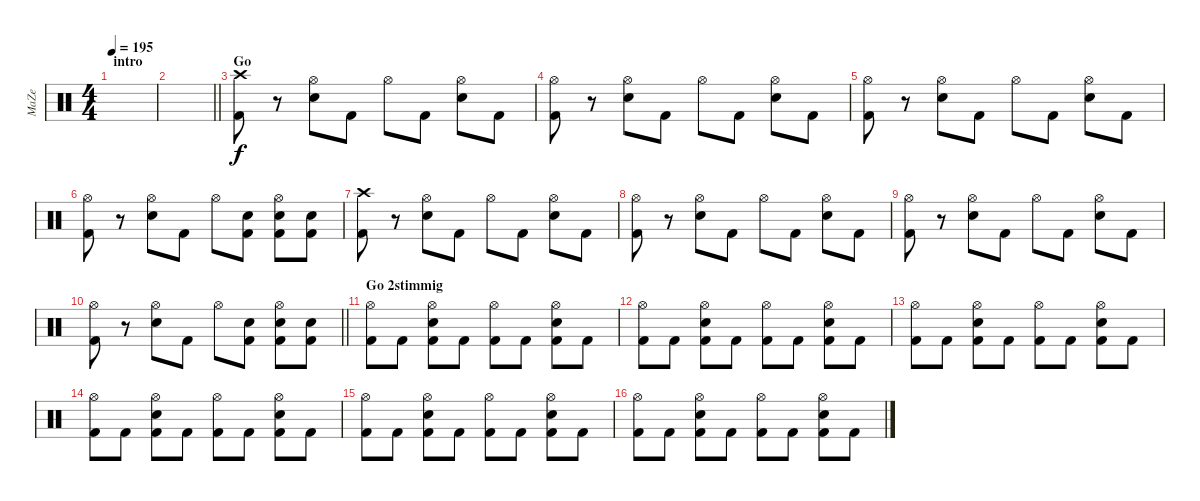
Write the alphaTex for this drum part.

\track ("MaZe" "MaZe") {instrument percussion}
\staff {score}
\articulation defaults
\ts (4 4)
\section ("" "intro")
\tempo 195
\clef neutral
\ks c
|
\barLineRight lightlight
|
\section ("" "Go")
("Crash high (hit)" "Kick (hit) 2").8 r.8 ("Snare (hit) 2" "Hi-Hat (open)").8 "Kick (hit) 2".8 "Hi-Hat (open)".8 "Kick (hit) 2".8 ("Snare (hit) 2" "Hi-Hat (open)").8 "Kick (hit) 2".8 |
("Hi-Hat (open)" "Kick (hit) 2").8 r.8 ("Snare (hit) 2" "Hi-Hat (open)").8 "Kick (hit) 2".8 "Hi-Hat (open)".8 "Kick (hit) 2".8 ("Snare (hit) 2" "Hi-Hat (open)").8 "Kick (hit) 2".8 |
("Hi-Hat (open)" "Kick (hit) 2").8 r.8 ("Snare (hit) 2" "Hi-Hat (open)").8 "Kick (hit) 2".8 "Hi-Hat (open)".8 "Kick (hit) 2".8 ("Snare (hit) 2" "Hi-Hat (open)").8 "Kick (hit) 2".8 |
("Hi-Hat (open)" "Kick (hit) 2").8 r.8 ("Snare (hit) 2" "Hi-Hat (open)").8 "Kick (hit) 2".8 "Hi-Hat (open)".8 ("Snare (hit) 2" "Kick (hit) 2").8 ("Snare (hit) 2" "Hi-Hat (open)" "Kick (hit) 2").8 ("Snare (hit) 2" "Kick (hit) 2").8 |
("Crash high (hit)" "Kick (hit) 2").8 r.8 ("Snare (hit) 2" "Hi-Hat (open)").8 "Kick (hit) 2".8 "Hi-Hat (open)".8 "Kick (hit) 2".8 ("Snare (hit) 2" "Hi-Hat (open)").8 "Kick (hit) 2".8 |
("Hi-Hat (open)" "Kick (hit) 2").8 r.8 ("Snare (hit) 2" "Hi-Hat (open)").8 "Kick (hit) 2".8 "Hi-Hat (open)".8 "Kick (hit) 2".8 ("Snare (hit) 2" "Hi-Hat (open)").8 "Kick (hit) 2".8 |
("Hi-Hat (open)" "Kick (hit) 2").8 r.8 ("Snare (hit) 2" "Hi-Hat (open)").8 "Kick (hit) 2".8 "Hi-Hat (open)".8 "Kick (hit) 2".8 ("Snare (hit) 2" "Hi-Hat (open)").8 "Kick (hit) 2".8 |
\barLineRight lightlight
("Hi-Hat (open)" "Kick (hit) 2").8 r.8 ("Snare (hit) 2" "Hi-Hat (open)").8 "Kick (hit) 2".8 "Hi-Hat (open)".8 ("Snare (hit) 2" "Kick (hit) 2").8 ("Snare (hit) 2" "Hi-Hat (open)" "Kick (hit) 2").8 ("Snare (hit) 2" "Kick (hit) 2").8 |
\section ("" "Go 2stimmig")
("Hi-Hat (open)" "Kick (hit) 2").8 "Kick (hit) 2".8 ("Snare (hit) 2" "Hi-Hat (open)" "Kick (hit) 2").8 "Kick (hit) 2".8 ("Hi-Hat (open)" "Kick (hit) 2").8 "Kick (hit) 2".8 ("Snare (hit) 2" "Hi-Hat (open)" "Kick (hit) 2").8 "Kick (hit) 2".8 |
("Hi-Hat (open)" "Kick (hit) 2").8 "Kick (hit) 2".8 ("Snare (hit) 2" "Hi-Hat (open)" "Kick (hit) 2").8 "Kick (hit) 2".8 ("Hi-Hat (open)" "Kick (hit) 2").8 "Kick (hit) 2".8 ("Snare (hit) 2" "Hi-Hat (open)" "Kick (hit) 2").8 "Kick (hit) 2".8 |
("Hi-Hat (open)" "Kick (hit) 2").8 "Kick (hit) 2".8 ("Snare (hit) 2" "Hi-Hat (open)" "Kick (hit) 2").8 "Kick (hit) 2".8 ("Hi-Hat (open)" "Kick (hit) 2").8 "Kick (hit) 2".8 ("Snare (hit) 2" "Hi-Hat (open)" "Kick (hit) 2").8 "Kick (hit) 2".8 |
("Hi-Hat (open)" "Kick (hit) 2").8 "Kick (hit) 2".8 ("Snare (hit) 2" "Hi-Hat (open)" "Kick (hit) 2").8 "Kick (hit) 2".8 ("Hi-Hat (open)" "Kick (hit) 2").8 "Kick (hit) 2".8 ("Snare (hit) 2" "Hi-Hat (open)" "Kick (hit) 2").8 "Kick (hit) 2".8 |
("Hi-Hat (open)" "Kick (hit) 2").8 "Kick (hit) 2".8 ("Snare (hit) 2" "Hi-Hat (open)" "Kick (hit) 2").8 "Kick (hit) 2".8 ("Hi-Hat (open)" "Kick (hit) 2").8 "Kick (hit) 2".8 ("Snare (hit) 2" "Hi-Hat (open)" "Kick (hit) 2").8 "Kick (hit) 2".8 |
("Hi-Hat (open)" "Kick (hit) 2").8 "Kick (hit) 2".8 ("Snare (hit) 2" "Hi-Hat (open)" "Kick (hit) 2").8 "Kick (hit) 2".8 ("Hi-Hat (open)" "Kick (hit) 2").8 "Kick (hit) 2".8 ("Snare (hit) 2" "Hi-Hat (open)" "Kick (hit) 2").8 "Kick (hit) 2".8
